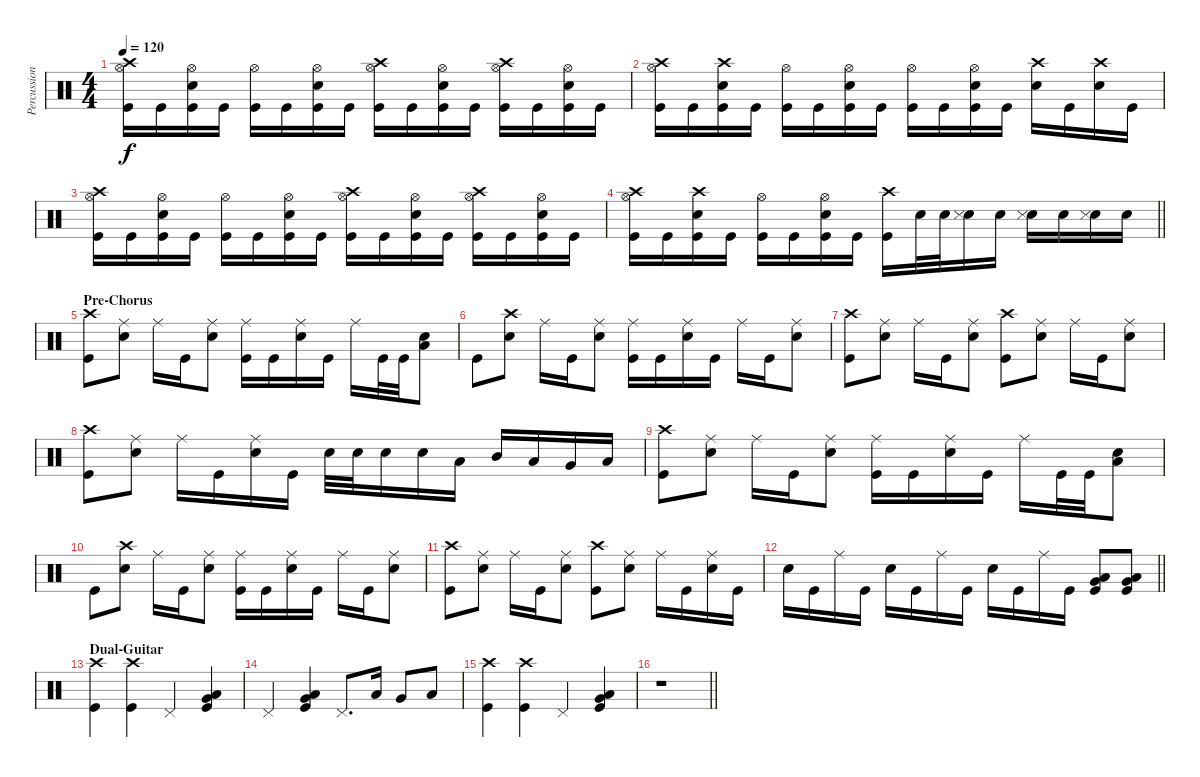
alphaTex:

\track ("Percussion" "Percussion") {instrument percussion}
\staff {score}
\articulation defaults
\ts (4 4)
\tempo 120
\clef neutral
\ks c
("Crash high (hit)" "Hi-Hat (open)" "Kick (hit)").16{dy f} "Kick (hit)".16 ("Hi-Hat (open)" "Snare (hit) 2" "Kick (hit)").16 "Kick (hit)".16 ("Hi-Hat (open)" "Kick (hit)").16 "Kick (hit)".16 ("Hi-Hat (open)" "Snare (hit) 2" "Kick (hit)").16 "Kick (hit)".16 ("Crash high (hit)" "Hi-Hat (open)" "Kick (hit)").16 "Kick (hit)".16 ("Hi-Hat (open)" "Snare (hit) 2" "Kick (hit)").16 "Kick (hit)".16 ("Crash high (hit)" "Hi-Hat (open)" "Kick (hit)").16 "Kick (hit)".16 ("Hi-Hat (open)" "Snare (hit) 2" "Kick (hit)").16 "Kick (hit)".16 |
("Crash high (hit)" "Hi-Hat (open)" "Kick (hit)").16 "Kick (hit)".16 ("Crash high (hit)" "Snare (hit) 2" "Kick (hit)").16 "Kick (hit)".16 ("Hi-Hat (open)" "Kick (hit)").16 "Kick (hit)".16 ("Hi-Hat (open)" "Snare (hit) 2" "Kick (hit)").16 "Kick (hit)".16 ("Hi-Hat (open)" "Kick (hit)").16 "Kick (hit)".16 ("Hi-Hat (open)" "Snare (hit) 2" "Kick (hit)").16 "Kick (hit)".16 ("Crash high (hit)" "Snare (hit) 2").16 "Kick (hit)".16 ("Crash high (hit)" "Snare (hit) 2").16 "Kick (hit)".16 |
("Crash high (hit)" "Hi-Hat (open)" "Kick (hit)").16 "Kick (hit)".16 ("Hi-Hat (open)" "Snare (hit) 2" "Kick (hit)").16 "Kick (hit)".16 ("Hi-Hat (open)" "Kick (hit)").16 "Kick (hit)".16 ("Hi-Hat (open)" "Snare (hit) 2" "Kick (hit)").16 "Kick (hit)".16 ("Crash high (hit)" "Hi-Hat (open)" "Kick (hit)").16 "Kick (hit)".16 ("Hi-Hat (open)" "Snare (hit) 2" "Kick (hit)").16 "Kick (hit)".16 ("Crash high (hit)" "Hi-Hat (open)" "Kick (hit)").16 "Kick (hit)".16 ("Hi-Hat (open)" "Snare (hit) 2" "Kick (hit)").16 "Kick (hit)".16 |
\barLineRight lightlight
("Crash high (hit)" "Hi-Hat (open)" "Kick (hit)").16 "Kick (hit)".16 ("Crash high (hit)" "Snare (hit) 2" "Kick (hit)").16 "Kick (hit)".16 ("Hi-Hat (open)" "Kick (hit)").16 "Kick (hit)".16 ("Hi-Hat (open)" "Snare (hit) 2" "Kick (hit)").16 "Kick (hit)".16 ("Crash high (hit)" "Kick (hit)").16 "Snare (hit) 2".32 "Snare (hit) 2".32 ("Snare (hit) 2" "Snare (side stick) 3").16 "Snare (hit) 2".16 ("Snare (hit) 2" "Snare (side stick) 3").16 "Snare (hit) 2".16 ("Snare (hit) 2" "Snare (side stick) 3").16 "Snare (hit) 2".16 |
\section ("" "Pre-Chorus")
("Crash high (hit)" "Kick (hit)").8 ("Ride (middle)" "Snare (hit) 2").8 "Ride (middle)".16 "Kick (hit)".16 ("Ride (middle)" "Snare (hit) 2").8 ("Ride (middle)" "Kick (hit)").16 "Kick (hit)".16 ("Ride (middle)" "Snare (hit) 2").16 "Kick (hit)".16 "Ride (middle)".16 "Kick (hit)".32 "Kick (hit)".32 ("Snare (hit) 2" "Low Floor Tom (hit)").8 |
"Kick (hit)".8 ("Crash high (hit)" "Snare (hit) 2").8 "Ride (middle)".16 "Kick (hit)".16 ("Ride (middle)" "Snare (hit) 2").8 ("Ride (middle)" "Kick (hit)").16 "Kick (hit)".16 ("Ride (middle)" "Snare (hit) 2").16 "Kick (hit)".16 "Ride (middle)".16 "Kick (hit)".16 ("Ride (middle)" "Snare (hit) 2").8 |
("Crash high (hit)" "Kick (hit)").8 ("Ride (middle)" "Snare (hit) 2").8 "Ride (middle)".16 "Kick (hit)".16 ("Ride (middle)" "Snare (hit) 2").8 ("Crash high (hit)" "Kick (hit)").8 ("Ride (middle)" "Snare (hit) 2").8 "Ride (middle)".16 "Kick (hit)".16 ("Ride (middle)" "Snare (hit) 2").8 |
("Crash high (hit)" "Kick (hit)").8 ("Ride (middle)" "Snare (hit) 2").8 "Ride (middle)".16 "Kick (hit)".16 ("Ride (middle)" "Snare (hit) 2").16 "Kick (hit)".16 "Snare (hit) 2".32 "Snare (hit) 2".32 "Snare (hit) 2".16 "Snare (hit) 2".16 "Low Tom (hit)".16 "Mid Tom (hit)".16 "Low Tom (hit)".16 "Very Low Tom (hit)".16 "Low Floor Tom (hit)".16 |
("Crash high (hit)" "Kick (hit)").8 ("Ride (middle)" "Snare (hit) 2").8 "Ride (middle)".16 "Kick (hit)".16 ("Ride (middle)" "Snare (hit) 2").8 ("Ride (middle)" "Kick (hit)").16 "Kick (hit)".16 ("Ride (middle)" "Snare (hit) 2").16 "Kick (hit)".16 "Ride (middle)".16 "Kick (hit)".32 "Kick (hit)".32 ("Snare (hit) 2" "Low Floor Tom (hit)").8 |
"Kick (hit)".8 ("Crash high (hit)" "Snare (hit) 2").8 "Ride (middle)".16 "Kick (hit)".16 ("Ride (middle)" "Snare (hit) 2").8 ("Ride (middle)" "Kick (hit)").16 "Kick (hit)".16 ("Ride (middle)" "Snare (hit) 2").16 "Kick (hit)".16 "Ride (middle)".16 "Kick (hit)".16 ("Ride (middle)" "Snare (hit) 2").8 |
("Crash high (hit)" "Kick (hit)").8 ("Ride (middle)" "Snare (hit) 2").8 "Ride (middle)".16 "Kick (hit)".16 ("Ride (middle)" "Snare (hit) 2").8 ("Crash high (hit)" "Kick (hit)").8 ("Ride (middle)" "Snare (hit) 2").8 "Ride (middle)".16 "Kick (hit)".16 ("Ride (middle)" "Snare (hit) 2").16 "Kick (hit)".16 |
\barLineRight lightlight "Snare (hit) 2".16 "Kick (hit)".16 "Ride (middle)".16 "Kick (hit)".16 "Snare (hit) 2".16 "Kick (hit)".16 "Ride (middle)".16 "Kick (hit)".16 "Snare (hit) 2".16 "Kick (hit)".16 "Ride (middle)".16 "Kick (hit)".16
("Very Low Tom (hit)" "Low Floor Tom (hit)" "Kick (hit)").8 ("Very Low Tom (hit)" "Low Floor Tom (hit)" "Kick (hit)").8 |
\section ("" "Dual-Guitar")
("Crash high (hit)" "Kick (hit)").4 ("Crash high (hit)" "Kick (hit)").4 "Pedal Hi-Hat (hit)".4 ("Very Low Tom (hit)" "Low Floor Tom (hit)" "Kick (hit)").4 |
"Pedal Hi-Hat (hit)".4 ("Very Low Tom (hit)" "Low Floor Tom (hit)" "Kick (hit)").4 "Pedal Hi-Hat (hit)".8{d} "Low Tom (hit)".16 "Very Low Tom (hit)".8 "Low Floor Tom (hit)".8 |
("Crash high (hit)" "Kick (hit)").4 ("Crash high (hit)" "Kick (hit)").4 "Pedal Hi-Hat (hit)".4 ("Very Low Tom (hit)" "Low Floor Tom (hit)" "Kick (hit)").4 |
\barLineRight lightlight
r.1
